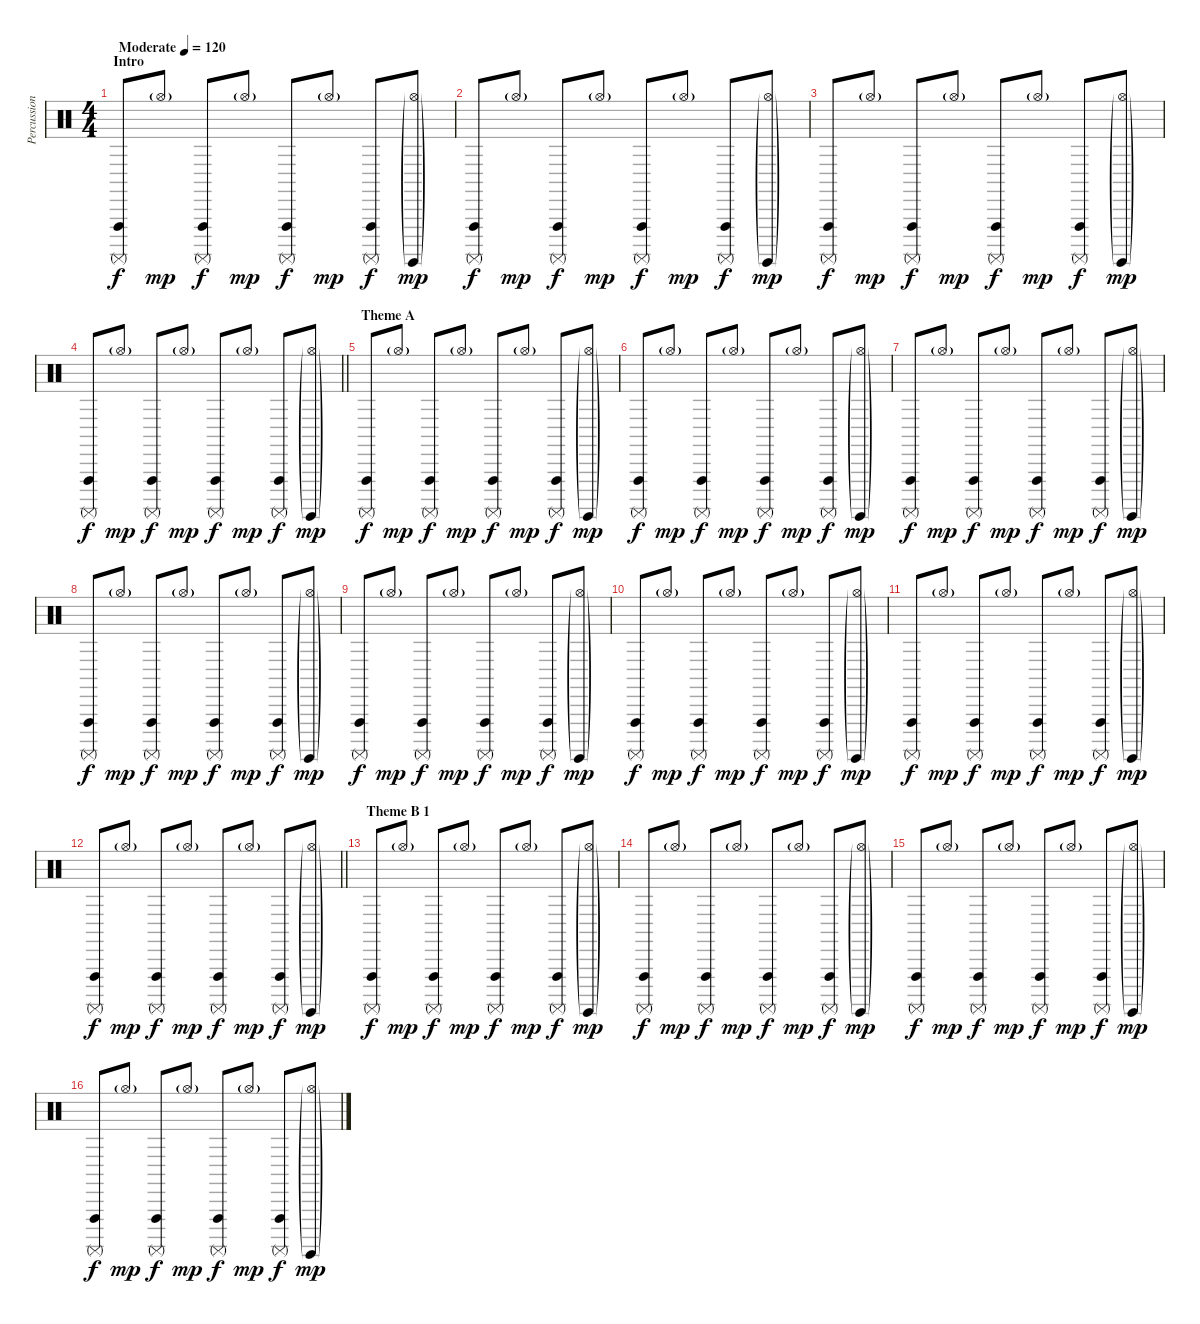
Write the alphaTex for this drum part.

\track ("Percussion 1" "Percussion") {instrument percussion}
\staff {score}
\articulation defaults
\ts (4 4)
\section ("" "Intro")
\tempo (120 "Moderate")
\clef neutral
\ks c
("Surdo (mute)" "Vibraslap (hit)").8{dy f} "Hi-Hat (open)"{g}.8{dy mp} ("Surdo (mute)" "Vibraslap (hit)").8{dy f} "Hi-Hat (open)"{g}.8{dy mp} ("Surdo (mute)" "Vibraslap (hit)").8{dy f} "Hi-Hat (open)"{g}.8{dy mp} ("Surdo (mute)" "Vibraslap (hit)").8{dy f} ("Surdo (hit)"{g} "Hi-Hat (open)"{g}).8{dy mp} |
("Surdo (mute)" "Vibraslap (hit)").8{dy f} "Hi-Hat (open)"{g}.8{dy mp} ("Surdo (mute)" "Vibraslap (hit)").8{dy f} "Hi-Hat (open)"{g}.8{dy mp} ("Surdo (mute)" "Vibraslap (hit)").8{dy f} "Hi-Hat (open)"{g}.8{dy mp} ("Surdo (mute)" "Vibraslap (hit)").8{dy f} ("Surdo (hit)"{g} "Hi-Hat (open)"{g}).8{dy mp} |
("Surdo (mute)" "Vibraslap (hit)").8{dy f} "Hi-Hat (open)"{g}.8{dy mp} ("Surdo (mute)" "Vibraslap (hit)").8{dy f} "Hi-Hat (open)"{g}.8{dy mp} ("Surdo (mute)" "Vibraslap (hit)").8{dy f} "Hi-Hat (open)"{g}.8{dy mp} ("Surdo (mute)" "Vibraslap (hit)").8{dy f} ("Surdo (hit)"{g} "Hi-Hat (open)"{g}).8{dy mp} |
\barLineRight lightlight
("Surdo (mute)" "Vibraslap (hit)").8{dy f} "Hi-Hat (open)"{g}.8{dy mp} ("Surdo (mute)" "Vibraslap (hit)").8{dy f} "Hi-Hat (open)"{g}.8{dy mp} ("Surdo (mute)" "Vibraslap (hit)").8{dy f} "Hi-Hat (open)"{g}.8{dy mp} ("Surdo (mute)" "Vibraslap (hit)").8{dy f} ("Surdo (hit)"{g} "Hi-Hat (open)"{g}).8{dy mp} |
\section ("" "Theme A")
("Surdo (mute)" "Vibraslap (hit)").8{dy f} "Hi-Hat (open)"{g}.8{dy mp} ("Surdo (mute)" "Vibraslap (hit)").8{dy f} "Hi-Hat (open)"{g}.8{dy mp} ("Surdo (mute)" "Vibraslap (hit)").8{dy f} "Hi-Hat (open)"{g}.8{dy mp} ("Surdo (mute)" "Vibraslap (hit)").8{dy f} ("Surdo (hit)"{g} "Hi-Hat (open)"{g}).8{dy mp} |
("Surdo (mute)" "Vibraslap (hit)").8{dy f} "Hi-Hat (open)"{g}.8{dy mp} ("Surdo (mute)" "Vibraslap (hit)").8{dy f} "Hi-Hat (open)"{g}.8{dy mp} ("Surdo (mute)" "Vibraslap (hit)").8{dy f} "Hi-Hat (open)"{g}.8{dy mp} ("Surdo (mute)" "Vibraslap (hit)").8{dy f} ("Surdo (hit)"{g} "Hi-Hat (open)"{g}).8{dy mp} |
("Surdo (mute)" "Vibraslap (hit)").8{dy f} "Hi-Hat (open)"{g}.8{dy mp} ("Surdo (mute)" "Vibraslap (hit)").8{dy f} "Hi-Hat (open)"{g}.8{dy mp} ("Surdo (mute)" "Vibraslap (hit)").8{dy f} "Hi-Hat (open)"{g}.8{dy mp} ("Surdo (mute)" "Vibraslap (hit)").8{dy f} ("Surdo (hit)"{g} "Hi-Hat (open)"{g}).8{dy mp} |
("Surdo (mute)" "Vibraslap (hit)").8{dy f} "Hi-Hat (open)"{g}.8{dy mp} ("Surdo (mute)" "Vibraslap (hit)").8{dy f} "Hi-Hat (open)"{g}.8{dy mp} ("Surdo (mute)" "Vibraslap (hit)").8{dy f} "Hi-Hat (open)"{g}.8{dy mp} ("Surdo (mute)" "Vibraslap (hit)").8{dy f} ("Surdo (hit)"{g} "Hi-Hat (open)"{g}).8{dy mp} |
("Surdo (mute)" "Vibraslap (hit)").8{dy f} "Hi-Hat (open)"{g}.8{dy mp} ("Surdo (mute)" "Vibraslap (hit)").8{dy f} "Hi-Hat (open)"{g}.8{dy mp} ("Surdo (mute)" "Vibraslap (hit)").8{dy f} "Hi-Hat (open)"{g}.8{dy mp} ("Surdo (mute)" "Vibraslap (hit)").8{dy f} ("Surdo (hit)"{g} "Hi-Hat (open)"{g}).8{dy mp} |
("Surdo (mute)" "Vibraslap (hit)").8{dy f} "Hi-Hat (open)"{g}.8{dy mp} ("Surdo (mute)" "Vibraslap (hit)").8{dy f} "Hi-Hat (open)"{g}.8{dy mp} ("Surdo (mute)" "Vibraslap (hit)").8{dy f} "Hi-Hat (open)"{g}.8{dy mp} ("Surdo (mute)" "Vibraslap (hit)").8{dy f} ("Surdo (hit)"{g} "Hi-Hat (open)"{g}).8{dy mp} |
("Surdo (mute)" "Vibraslap (hit)").8{dy f} "Hi-Hat (open)"{g}.8{dy mp} ("Surdo (mute)" "Vibraslap (hit)").8{dy f} "Hi-Hat (open)"{g}.8{dy mp} ("Surdo (mute)" "Vibraslap (hit)").8{dy f} "Hi-Hat (open)"{g}.8{dy mp} ("Surdo (mute)" "Vibraslap (hit)").8{dy f} ("Surdo (hit)"{g} "Hi-Hat (open)"{g}).8{dy mp} |
\barLineRight lightlight
("Surdo (mute)" "Vibraslap (hit)").8{dy f} "Hi-Hat (open)"{g}.8{dy mp} ("Surdo (mute)" "Vibraslap (hit)").8{dy f} "Hi-Hat (open)"{g}.8{dy mp} ("Surdo (mute)" "Vibraslap (hit)").8{dy f} "Hi-Hat (open)"{g}.8{dy mp} ("Surdo (mute)" "Vibraslap (hit)").8{dy f} ("Surdo (hit)"{g} "Hi-Hat (open)"{g}).8{dy mp} |
\section ("" "Theme B 1")
("Surdo (mute)" "Vibraslap (hit)").8{dy f} "Hi-Hat (open)"{g}.8{dy mp} ("Surdo (mute)" "Vibraslap (hit)").8{dy f} "Hi-Hat (open)"{g}.8{dy mp} ("Surdo (mute)" "Vibraslap (hit)").8{dy f} "Hi-Hat (open)"{g}.8{dy mp} ("Surdo (mute)" "Vibraslap (hit)").8{dy f} ("Surdo (hit)"{g} "Hi-Hat (open)"{g}).8{dy mp} |
("Surdo (mute)" "Vibraslap (hit)").8{dy f} "Hi-Hat (open)"{g}.8{dy mp} ("Surdo (mute)" "Vibraslap (hit)").8{dy f} "Hi-Hat (open)"{g}.8{dy mp} ("Surdo (mute)" "Vibraslap (hit)").8{dy f} "Hi-Hat (open)"{g}.8{dy mp} ("Surdo (mute)" "Vibraslap (hit)").8{dy f} ("Surdo (hit)"{g} "Hi-Hat (open)"{g}).8{dy mp} |
("Surdo (mute)" "Vibraslap (hit)").8{dy f} "Hi-Hat (open)"{g}.8{dy mp} ("Surdo (mute)" "Vibraslap (hit)").8{dy f} "Hi-Hat (open)"{g}.8{dy mp} ("Surdo (mute)" "Vibraslap (hit)").8{dy f} "Hi-Hat (open)"{g}.8{dy mp} ("Surdo (mute)" "Vibraslap (hit)").8{dy f} ("Surdo (hit)"{g} "Hi-Hat (open)"{g}).8{dy mp} |
("Surdo (mute)" "Vibraslap (hit)").8{dy f} "Hi-Hat (open)"{g}.8{dy mp} ("Surdo (mute)" "Vibraslap (hit)").8{dy f} "Hi-Hat (open)"{g}.8{dy mp} ("Surdo (mute)" "Vibraslap (hit)").8{dy f} "Hi-Hat (open)"{g}.8{dy mp} ("Surdo (mute)" "Vibraslap (hit)").8{dy f} ("Surdo (hit)"{g} "Hi-Hat (open)"{g}).8{dy mp}
